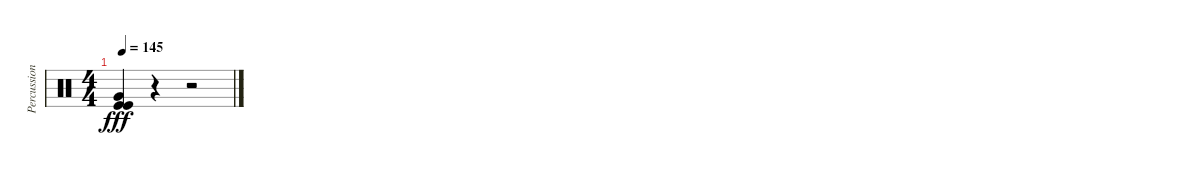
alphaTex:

\track ("Percussion" "Percussion") {instrument percussion}
\staff {score}
\articulation defaults
\ts (4 4)
\tempo 145
\clef neutral
\ks c
("Very Low Tom (hit)" "Kick (hit)" "Kick (hit)").4{dy fff} r.4 r.2
